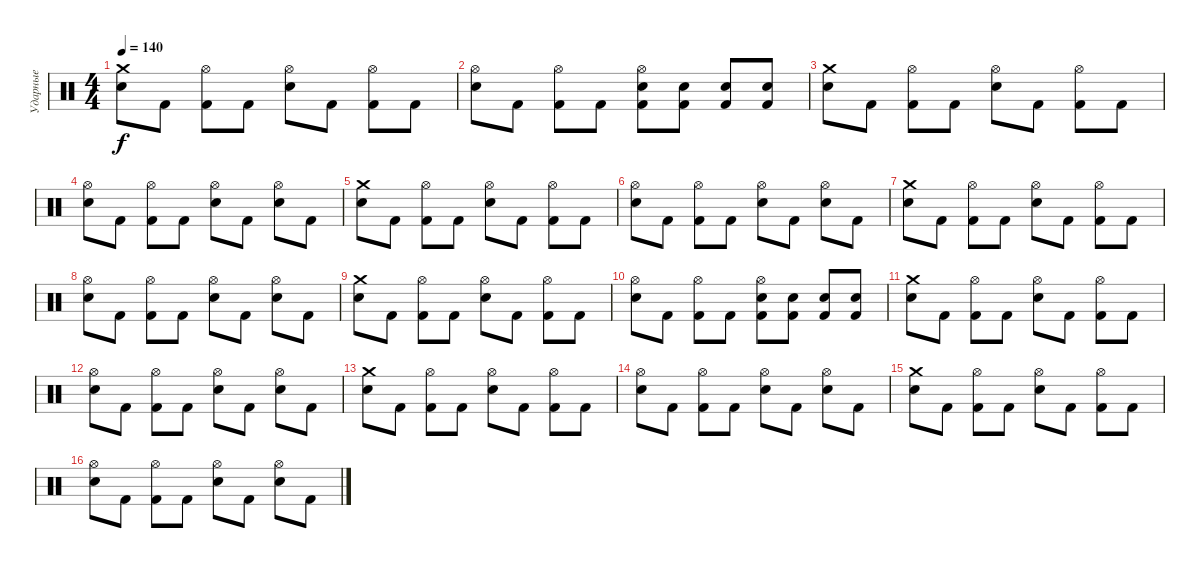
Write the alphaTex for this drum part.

\track ("Ударные" "Ударные") {instrument percussion}
\staff {score}
\articulation defaults
\ts (4 4)
\tempo 140
\clef neutral
\ks c
("Crash medium (hit)" "Electric Snare (hit)").8{dy f} "Kick (hit) 2".8 ("Hi-Hat (open)" "Kick (hit) 2").8 "Kick (hit) 2".8 ("Hi-Hat (open)" "Electric Snare (hit)").8 "Kick (hit) 2".8 ("Hi-Hat (open)" "Kick (hit) 2").8 "Kick (hit) 2".8 |
("Hi-Hat (open)" "Electric Snare (hit)").8 "Kick (hit) 2".8 ("Hi-Hat (open)" "Kick (hit) 2").8 "Kick (hit) 2".8 ("Hi-Hat (open)" "Electric Snare (hit)" "Kick (hit) 2").8 ("Electric Snare (hit)" "Kick (hit) 2").8 ("Electric Snare (hit)" "Kick (hit) 2").8 ("Electric Snare (hit)" "Kick (hit) 2").8 |
("Crash medium (hit)" "Electric Snare (hit)").8 "Kick (hit) 2".8 ("Hi-Hat (open)" "Kick (hit) 2").8 "Kick (hit) 2".8 ("Hi-Hat (open)" "Electric Snare (hit)").8 "Kick (hit) 2".8 ("Hi-Hat (open)" "Kick (hit) 2").8 "Kick (hit) 2".8 |
("Hi-Hat (open)" "Electric Snare (hit)").8 "Kick (hit) 2".8 ("Hi-Hat (open)" "Kick (hit) 2").8 "Kick (hit) 2".8 ("Hi-Hat (open)" "Electric Snare (hit)").8 "Kick (hit) 2".8 ("Hi-Hat (open)" "Electric Snare (hit)").8 "Kick (hit) 2".8 |
("Crash medium (hit)" "Electric Snare (hit)").8 "Kick (hit) 2".8 ("Hi-Hat (open)" "Kick (hit) 2").8 "Kick (hit) 2".8 ("Hi-Hat (open)" "Electric Snare (hit)").8 "Kick (hit) 2".8 ("Hi-Hat (open)" "Kick (hit) 2").8 "Kick (hit) 2".8 |
("Hi-Hat (open)" "Electric Snare (hit)").8 "Kick (hit) 2".8 ("Hi-Hat (open)" "Kick (hit) 2").8 "Kick (hit) 2".8 ("Hi-Hat (open)" "Electric Snare (hit)").8 "Kick (hit) 2".8 ("Hi-Hat (open)" "Electric Snare (hit)").8 "Kick (hit) 2".8 |
("Crash medium (hit)" "Electric Snare (hit)").8 "Kick (hit) 2".8 ("Hi-Hat (open)" "Kick (hit) 2").8 "Kick (hit) 2".8 ("Hi-Hat (open)" "Electric Snare (hit)").8 "Kick (hit) 2".8 ("Hi-Hat (open)" "Kick (hit) 2").8 "Kick (hit) 2".8 |
("Hi-Hat (open)" "Electric Snare (hit)").8 "Kick (hit) 2".8 ("Hi-Hat (open)" "Kick (hit) 2").8 "Kick (hit) 2".8 ("Hi-Hat (open)" "Electric Snare (hit)").8 "Kick (hit) 2".8 ("Hi-Hat (open)" "Electric Snare (hit)").8 "Kick (hit) 2".8 |
("Crash medium (hit)" "Electric Snare (hit)").8 "Kick (hit) 2".8 ("Hi-Hat (open)" "Kick (hit) 2").8 "Kick (hit) 2".8 ("Hi-Hat (open)" "Electric Snare (hit)").8 "Kick (hit) 2".8 ("Hi-Hat (open)" "Kick (hit) 2").8 "Kick (hit) 2".8 |
("Hi-Hat (open)" "Electric Snare (hit)").8 "Kick (hit) 2".8 ("Hi-Hat (open)" "Kick (hit) 2").8 "Kick (hit) 2".8 ("Hi-Hat (open)" "Electric Snare (hit)" "Kick (hit) 2").8 ("Electric Snare (hit)" "Kick (hit) 2").8 ("Electric Snare (hit)" "Kick (hit) 2").8 ("Electric Snare (hit)" "Kick (hit) 2").8 |
("Crash medium (hit)" "Electric Snare (hit)").8 "Kick (hit) 2".8 ("Hi-Hat (open)" "Kick (hit) 2").8 "Kick (hit) 2".8 ("Hi-Hat (open)" "Electric Snare (hit)").8 "Kick (hit) 2".8 ("Hi-Hat (open)" "Kick (hit) 2").8 "Kick (hit) 2".8 |
("Hi-Hat (open)" "Electric Snare (hit)").8 "Kick (hit) 2".8 ("Hi-Hat (open)" "Kick (hit) 2").8 "Kick (hit) 2".8 ("Hi-Hat (open)" "Electric Snare (hit)").8 "Kick (hit) 2".8 ("Hi-Hat (open)" "Electric Snare (hit)").8 "Kick (hit) 2".8 |
("Crash medium (hit)" "Electric Snare (hit)").8 "Kick (hit) 2".8 ("Hi-Hat (open)" "Kick (hit) 2").8 "Kick (hit) 2".8 ("Hi-Hat (open)" "Electric Snare (hit)").8 "Kick (hit) 2".8 ("Hi-Hat (open)" "Kick (hit) 2").8 "Kick (hit) 2".8 |
("Hi-Hat (open)" "Electric Snare (hit)").8 "Kick (hit) 2".8 ("Hi-Hat (open)" "Kick (hit) 2").8 "Kick (hit) 2".8 ("Hi-Hat (open)" "Electric Snare (hit)").8 "Kick (hit) 2".8 ("Hi-Hat (open)" "Electric Snare (hit)").8 "Kick (hit) 2".8 |
("Crash medium (hit)" "Electric Snare (hit)").8 "Kick (hit) 2".8 ("Hi-Hat (open)" "Kick (hit) 2").8 "Kick (hit) 2".8 ("Hi-Hat (open)" "Electric Snare (hit)").8 "Kick (hit) 2".8 ("Hi-Hat (open)" "Kick (hit) 2").8 "Kick (hit) 2".8 |
("Hi-Hat (open)" "Electric Snare (hit)").8 "Kick (hit) 2".8 ("Hi-Hat (open)" "Kick (hit) 2").8 "Kick (hit) 2".8 ("Hi-Hat (open)" "Electric Snare (hit)").8 "Kick (hit) 2".8 ("Hi-Hat (open)" "Electric Snare (hit)").8 "Kick (hit) 2".8
